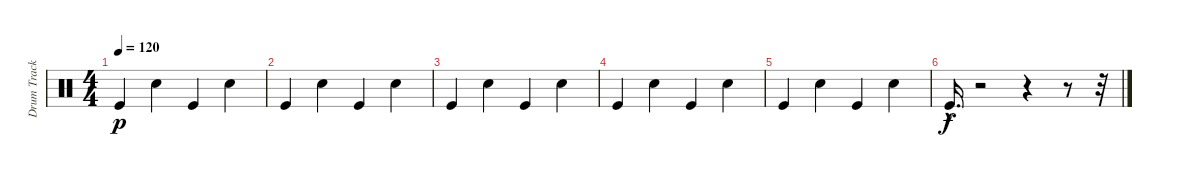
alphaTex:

\track ("Drum Track" "Drum Track") {instrument percussion}
\staff {score}
\articulation defaults
\ts (4 4)
\tempo 120
\clef neutral
\ks c "Kick (hit)".4{dy p} "Snare (hit) 2".4 "Kick (hit)".4 "Snare (hit) 2".4
|
"Kick (hit)".4 "Snare (hit) 2".4 "Kick (hit)".4 "Snare (hit) 2".4 |
"Kick (hit)".4 "Snare (hit) 2".4 "Kick (hit)".4 "Snare (hit) 2".4 |
"Kick (hit)".4 "Snare (hit) 2".4 "Kick (hit)".4 "Snare (hit) 2".4 |
"Kick (hit)".4 "Snare (hit) 2".4 "Kick (hit)".4 "Snare (hit) 2".4 |
"Kick (hit)"{hac}.16{d dy f} r.2 r.4 r.8 r.32
